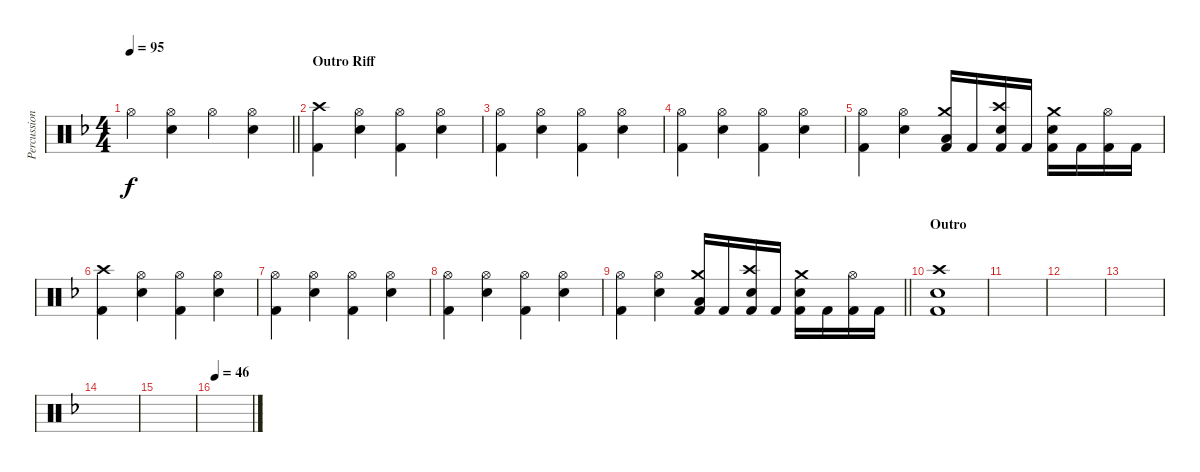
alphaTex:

\track ("Percussions (Scott Travis)" "Percussion") {instrument percussion}
\staff {score}
\articulation defaults
\ts (4 4)
\tempo 95
\clef neutral
\barLineRight lightlight
\ks dminor "Hi-Hat (open)".4{dy f}
("Hi-Hat (open)" "Snare (hit) 2").4 "Hi-Hat (open)".4 ("Hi-Hat (open)" "Snare (hit) 2").4 |
\section ("" "Outro Riff")
("Crash high (hit)" "Kick (hit) 2").4 ("Hi-Hat (open)" "Snare (hit) 2").4 ("Hi-Hat (open)" "Kick (hit) 2").4 ("Hi-Hat (open)" "Snare (hit) 2").4 |
("Hi-Hat (open)" "Kick (hit) 2").4 ("Hi-Hat (open)" "Snare (hit) 2").4 ("Hi-Hat (open)" "Kick (hit) 2").4 ("Hi-Hat (open)" "Snare (hit) 2").4 |
("Hi-Hat (open)" "Kick (hit) 2").4 ("Hi-Hat (open)" "Snare (hit) 2").4 ("Hi-Hat (open)" "Kick (hit) 2").4 ("Hi-Hat (open)" "Snare (hit) 2").4 |
("Hi-Hat (open)" "Kick (hit) 2").4 ("Hi-Hat (open)" "Snare (hit) 2").4 ("Crash medium (hit)" "Low Tom (hit)" "Kick (hit) 2").16 "Kick (hit) 2".16 ("Crash high (hit)" "Snare (hit) 2" "Kick (hit) 2").16 "Kick (hit) 2".16 ("Crash medium (hit)" "Snare (hit) 2" "Kick (hit) 2").16 "Kick (hit) 2".16 ("Hi-Hat (open)" "Kick (hit) 2").16 "Kick (hit) 2".16 |
("Crash high (hit)" "Kick (hit) 2").4 ("Hi-Hat (open)" "Snare (hit) 2").4 ("Hi-Hat (open)" "Kick (hit) 2").4 ("Hi-Hat (open)" "Snare (hit) 2").4 |
("Hi-Hat (open)" "Kick (hit) 2").4 ("Hi-Hat (open)" "Snare (hit) 2").4 ("Hi-Hat (open)" "Kick (hit) 2").4 ("Hi-Hat (open)" "Snare (hit) 2").4 |
("Hi-Hat (open)" "Kick (hit) 2").4 ("Hi-Hat (open)" "Snare (hit) 2").4 ("Hi-Hat (open)" "Kick (hit) 2").4 ("Hi-Hat (open)" "Snare (hit) 2").4 |
\barLineRight lightlight
("Hi-Hat (open)" "Kick (hit) 2").4 ("Hi-Hat (open)" "Snare (hit) 2").4 ("Crash medium (hit)" "Low Tom (hit)" "Kick (hit) 2").16 "Kick (hit) 2".16 ("Crash high (hit)" "Snare (hit) 2" "Kick (hit) 2").16 "Kick (hit) 2".16 ("Crash medium (hit)" "Snare (hit) 2" "Kick (hit) 2").16 "Kick (hit) 2".16 ("Hi-Hat (open)" "Kick (hit) 2").16 "Kick (hit) 2".16 |
\section ("" "Outro")
("Crash high (hit)" "Snare (hit) 2" "Kick (hit) 2").1 |
|
|
|
|
|
\tempo 46
